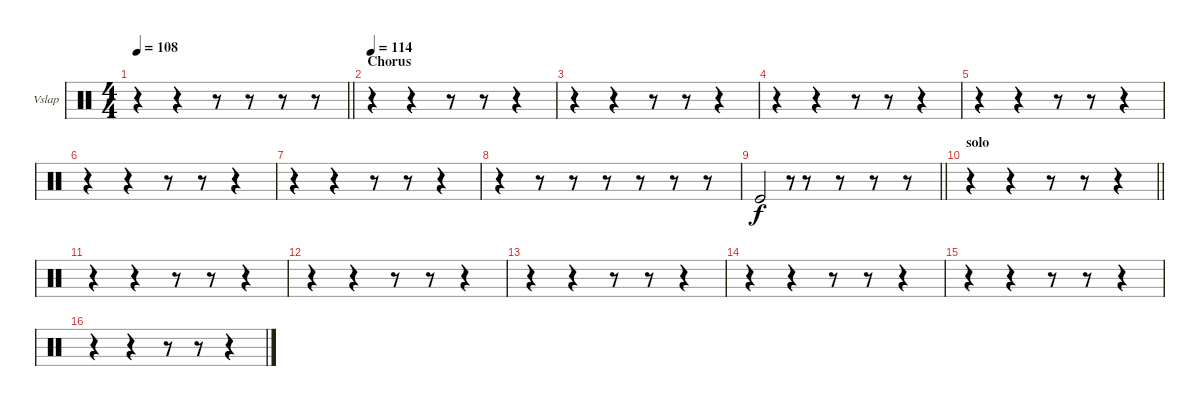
\bracketExtendMode groupsimilarinstruments
\firstSystemTrackNameOrientation horizontal
\otherSystemsTrackNameOrientation horizontal
\track ("Vibraslap" "Vslap") {instrument percussion}
\staff {score}
\articulation defaults
\ts (4 4)
\tempo 108
\clef neutral
\barLineRight lightlight
\ks c
r.4{dy f} r.4 r.8 r.8 r.8 r.8 |
\section ("" "Chorus")
\tempo 114
r.4 r.4 r.8 r.8 r.4 |
r.4 r.4 r.8 r.8 r.4{tp 2} |
r.4 r.4 r.8 r.8 r.4 |
r.4 r.4 r.8 r.8 r.4{tp 1} |
r.4 r.4 r.8 r.8 r.4 |
r.4 r.4 r.8 r.8 r.4 |
r.4 r.8 r.8{tp 2} r.8 r.8{tp 2} r.8{tp 2} r.8{tp 2} |
\barLineRight lightlight "Kick (hit)".2
r.8{gr} r.8 r.8 r.8 r.8 |
\section ("" "solo")
\barLineRight lightlight
r.4 r.4{tp 2} r.8{tp 1} r.8 r.4{tp 1} |
r.4 r.4{tp 2} r.8{tp 1} r.8 r.4{tp 1} |
r.4 r.4{tp 2} r.8{tp 1} r.8 r.4{tp 1} |
r.4 r.4{tp 2} r.8{tp 1} r.8 r.4{tp 1} |
r.4 r.4{tp 1} r.8{tp 2} r.8 r.4{tp 1} |
r.4 r.4 r.8{tp 1} r.8 r.4{tp 1} |
r.4 r.4{tp 1} r.8{tp 1} r.8 r.4{tp 1}
